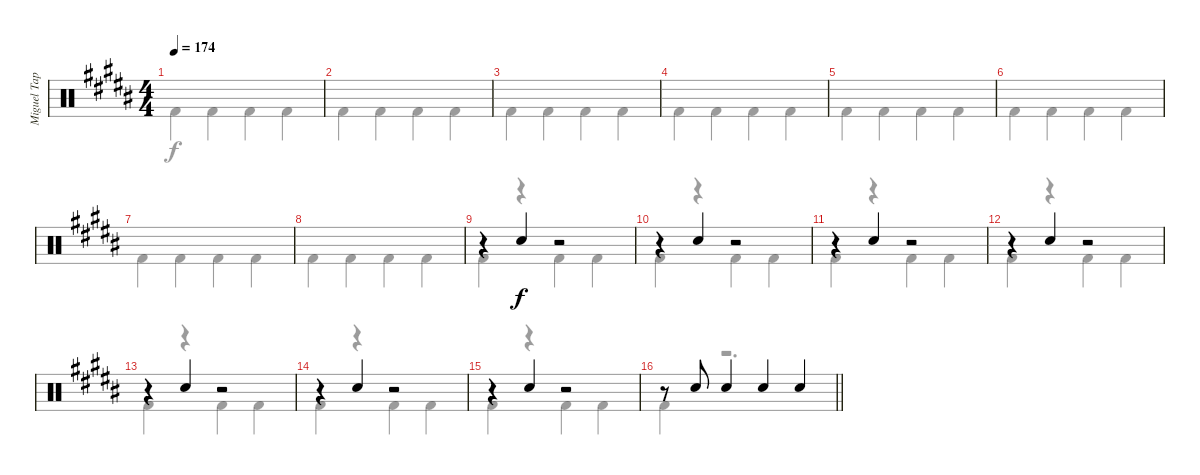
\track ("Miguel Tapia" "Miguel Tap") {instrument percussion}
\staff {score}
\articulation defaults
\voice
\ts (4 4)
\tempo 174
\clef neutral
\ks b
|
|
|
|
|
|
|
|
r.4 "Snare (hit) 2".4 r.2 |
r.4 "Snare (hit) 2".4 r.2 |
r.4 "Snare (hit) 2".4 r.2 |
r.4 "Snare (hit) 2".4 r.2 |
r.4 "Snare (hit) 2".4 r.2 |
r.4 "Snare (hit) 2".4 r.2 |
r.4 "Snare (hit) 2".4 r.2 |
\barLineRight lightlight
r.8 "Snare (hit) 2".8 "Snare (hit) 2".4 "Snare (hit) 2".4 "Snare (hit) 2".4
\voice
\clef neutral
\ottava regular
\simile none
\ks b "Kick (hit) 2".4{dy f} "Kick (hit) 2".4 "Kick (hit) 2".4 "Kick (hit) 2".4
|
"Kick (hit) 2".4 "Kick (hit) 2".4 "Kick (hit) 2".4 "Kick (hit) 2".4 |
"Kick (hit) 2".4 "Kick (hit) 2".4 "Kick (hit) 2".4 "Kick (hit) 2".4 |
"Kick (hit) 2".4 "Kick (hit) 2".4 "Kick (hit) 2".4 "Kick (hit) 2".4 |
"Kick (hit) 2".4 "Kick (hit) 2".4 "Kick (hit) 2".4 "Kick (hit) 2".4 |
"Kick (hit) 2".4 "Kick (hit) 2".4 "Kick (hit) 2".4 "Kick (hit) 2".4 |
"Kick (hit) 2".4 "Kick (hit) 2".4 "Kick (hit) 2".4 "Kick (hit) 2".4 |
"Kick (hit) 2".4 "Kick (hit) 2".4 "Kick (hit) 2".4 "Kick (hit) 2".4 |
"Kick (hit) 2".4 r.4 "Kick (hit) 2".4 "Kick (hit) 2".4 |
"Kick (hit) 2".4 r.4 "Kick (hit) 2".4 "Kick (hit) 2".4 |
"Kick (hit) 2".4 r.4 "Kick (hit) 2".4 "Kick (hit) 2".4 |
"Kick (hit) 2".4 r.4 "Kick (hit) 2".4 "Kick (hit) 2".4 |
"Kick (hit) 2".4 r.4 "Kick (hit) 2".4 "Kick (hit) 2".4 |
"Kick (hit) 2".4 r.4 "Kick (hit) 2".4 "Kick (hit) 2".4 |
"Kick (hit) 2".4 r.4 "Kick (hit) 2".4 "Kick (hit) 2".4 |
\barLineRight lightlight "Kick (hit) 2".4
r.2{d}
